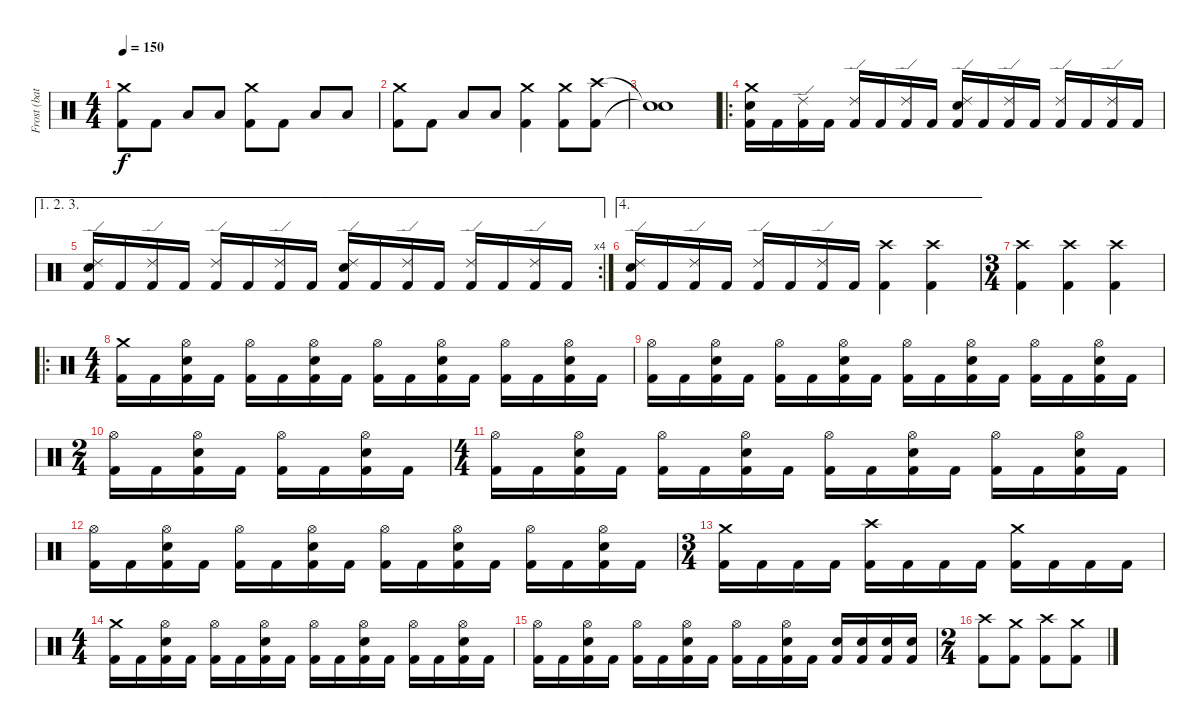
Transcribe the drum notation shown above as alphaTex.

\track ("Frost (battery)" "Frost (bat") {instrument percussion}
\staff {score}
\articulation defaults
\ts (4 4)
\tempo 150
\clef neutral
\ks c
("Crash medium (hit)" "Kick (hit) 2").8{dy f} "Kick (hit) 2".8 "Low Floor Tom (hit)".8 "Low Floor Tom (hit)".8 ("Crash medium (hit)" "Kick (hit) 2").8 "Kick (hit) 2".8 "Low Floor Tom (hit)".8 "Low Floor Tom (hit)".8 |
("Crash medium (hit)" "Kick (hit) 2").8 "Kick (hit) 2".8 "Low Floor Tom (hit)".8 "Low Floor Tom (hit)".8 ("Crash medium (hit)" "Kick (hit) 2").4 ("Crash medium (hit)" "Kick (hit) 2").8 ("Crash high (hit)" "Kick (hit) 2").8 |
("Snare (hit)"{t} "Snare (hit)"{t}).1 |
\ro
("Crash medium (hit)" "Electric Snare (hit)" "Kick (hit) 2").16 "Kick (hit) 2".16 ("Ride (edge) 2" "Kick (hit) 2").16 "Kick (hit) 2".16 ("Ride (edge) 2" "Kick (hit) 2").16 "Kick (hit) 2".16 ("Ride (edge) 2" "Kick (hit) 2").16 "Kick (hit) 2".16 ("Ride (edge) 2" "Electric Snare (hit)" "Kick (hit) 2").16 "Kick (hit) 2".16 ("Ride (edge) 2" "Kick (hit) 2").16 "Kick (hit) 2".16 ("Ride (edge) 2" "Kick (hit) 2").16 "Kick (hit) 2".16 ("Ride (edge) 2" "Kick (hit) 2").16 "Kick (hit) 2".16 |
\ae (1 2 3)
\rc 4
("Ride (edge) 2" "Electric Snare (hit)" "Kick (hit) 2").16 "Kick (hit) 2".16 ("Ride (edge) 2" "Kick (hit) 2").16 "Kick (hit) 2".16 ("Ride (edge) 2" "Kick (hit) 2").16 "Kick (hit) 2".16 ("Ride (edge) 2" "Kick (hit) 2").16 "Kick (hit) 2".16 ("Ride (edge) 2" "Electric Snare (hit)" "Kick (hit) 2").16 "Kick (hit) 2".16 ("Ride (edge) 2" "Kick (hit) 2").16 "Kick (hit) 2".16 ("Ride (edge) 2" "Kick (hit) 2").16 "Kick (hit) 2".16 ("Ride (edge) 2" "Kick (hit) 2").16 "Kick (hit) 2".16 |
\ae 4
("Ride (edge) 2" "Electric Snare (hit)" "Kick (hit) 2").16 "Kick (hit) 2".16 ("Ride (edge) 2" "Kick (hit) 2").16 "Kick (hit) 2".16 ("Ride (edge) 2" "Kick (hit) 2").16 "Kick (hit) 2".16 ("Ride (edge) 2" "Kick (hit) 2").16 "Kick (hit) 2".16 ("Crash high (hit)" "Kick (hit) 2").4 ("Crash high (hit)" "Kick (hit) 2").4 |
\ts (3 4)
("Crash high (hit)" "Kick (hit) 2").4 ("Crash high (hit)" "Kick (hit) 2").4 ("Crash high (hit)" "Kick (hit) 2").4 |
\ro
\ts (4 4)
("Crash medium (hit)" "Kick (hit) 2").16 "Kick (hit) 2".16 ("Hi-Hat (open)" "Electric Snare (hit)" "Kick (hit) 2").16 "Kick (hit) 2".16 ("Hi-Hat (open)" "Kick (hit) 2").16 "Kick (hit) 2".16 ("Hi-Hat (open)" "Electric Snare (hit)" "Kick (hit) 2").16 "Kick (hit) 2".16 ("Hi-Hat (open)" "Kick (hit) 2").16 "Kick (hit) 2".16 ("Hi-Hat (open)" "Electric Snare (hit)" "Kick (hit) 2").16 "Kick (hit) 2".16 ("Hi-Hat (open)" "Kick (hit) 2").16 "Kick (hit) 2".16 ("Hi-Hat (open)" "Electric Snare (hit)" "Kick (hit) 2").16 "Kick (hit) 2".16 |
("Hi-Hat (open)" "Kick (hit) 2").16 "Kick (hit) 2".16 ("Hi-Hat (open)" "Electric Snare (hit)" "Kick (hit) 2").16 "Kick (hit) 2".16 ("Hi-Hat (open)" "Kick (hit) 2").16 "Kick (hit) 2".16 ("Hi-Hat (open)" "Electric Snare (hit)" "Kick (hit) 2").16 "Kick (hit) 2".16 ("Hi-Hat (open)" "Kick (hit) 2").16 "Kick (hit) 2".16 ("Hi-Hat (open)" "Electric Snare (hit)" "Kick (hit) 2").16 "Kick (hit) 2".16 ("Hi-Hat (open)" "Kick (hit) 2").16 "Kick (hit) 2".16 ("Hi-Hat (open)" "Electric Snare (hit)" "Kick (hit) 2").16 "Kick (hit) 2".16 |
\ts (2 4)
("Hi-Hat (open)" "Kick (hit) 2").16 "Kick (hit) 2".16 ("Hi-Hat (open)" "Electric Snare (hit)" "Kick (hit) 2").16 "Kick (hit) 2".16 ("Hi-Hat (open)" "Kick (hit) 2").16 "Kick (hit) 2".16 ("Hi-Hat (open)" "Electric Snare (hit)" "Kick (hit) 2").16 "Kick (hit) 2".16 |
\ts (4 4)
("Hi-Hat (open)" "Kick (hit) 2").16 "Kick (hit) 2".16 ("Hi-Hat (open)" "Electric Snare (hit)" "Kick (hit) 2").16 "Kick (hit) 2".16 ("Hi-Hat (open)" "Kick (hit) 2").16 "Kick (hit) 2".16 ("Hi-Hat (open)" "Electric Snare (hit)" "Kick (hit) 2").16 "Kick (hit) 2".16 ("Hi-Hat (open)" "Kick (hit) 2").16 "Kick (hit) 2".16 ("Hi-Hat (open)" "Electric Snare (hit)" "Kick (hit) 2").16 "Kick (hit) 2".16 ("Hi-Hat (open)" "Kick (hit) 2").16 "Kick (hit) 2".16 ("Hi-Hat (open)" "Electric Snare (hit)" "Kick (hit) 2").16 "Kick (hit) 2".16 |
("Hi-Hat (open)" "Kick (hit) 2").16 "Kick (hit) 2".16 ("Hi-Hat (open)" "Electric Snare (hit)" "Kick (hit) 2").16 "Kick (hit) 2".16 ("Hi-Hat (open)" "Kick (hit) 2").16 "Kick (hit) 2".16 ("Hi-Hat (open)" "Electric Snare (hit)" "Kick (hit) 2").16 "Kick (hit) 2".16 ("Hi-Hat (open)" "Kick (hit) 2").16 "Kick (hit) 2".16 ("Hi-Hat (open)" "Electric Snare (hit)" "Kick (hit) 2").16 "Kick (hit) 2".16 ("Hi-Hat (open)" "Kick (hit) 2").16 "Kick (hit) 2".16 ("Hi-Hat (open)" "Electric Snare (hit)" "Kick (hit) 2").16 "Kick (hit) 2".16 |
\ts (3 4)
("Crash medium (hit)" "Kick (hit) 2").16 "Kick (hit) 2".16 "Kick (hit) 2".16 "Kick (hit) 2".16 ("Crash high (hit)" "Kick (hit) 2").16 "Kick (hit) 2".16 "Kick (hit) 2".16 "Kick (hit) 2".16 ("Crash medium (hit)" "Kick (hit) 2").16 "Kick (hit) 2".16 "Kick (hit) 2".16 "Kick (hit) 2".16 |
\ts (4 4)
("Crash medium (hit)" "Kick (hit) 2").16 "Kick (hit) 2".16 ("Hi-Hat (open)" "Electric Snare (hit)" "Kick (hit) 2").16 "Kick (hit) 2".16 ("Hi-Hat (open)" "Kick (hit) 2").16 "Kick (hit) 2".16 ("Hi-Hat (open)" "Electric Snare (hit)" "Kick (hit) 2").16 "Kick (hit) 2".16 ("Hi-Hat (open)" "Kick (hit) 2").16 "Kick (hit) 2".16 ("Hi-Hat (open)" "Electric Snare (hit)" "Kick (hit) 2").16 "Kick (hit) 2".16 ("Hi-Hat (open)" "Kick (hit) 2").16 "Kick (hit) 2".16 ("Hi-Hat (open)" "Electric Snare (hit)" "Kick (hit) 2").16 "Kick (hit) 2".16 |
("Hi-Hat (open)" "Kick (hit) 2").16 "Kick (hit) 2".16 ("Hi-Hat (open)" "Electric Snare (hit)" "Kick (hit) 2").16 "Kick (hit) 2".16 ("Hi-Hat (open)" "Kick (hit) 2").16 "Kick (hit) 2".16 ("Hi-Hat (open)" "Electric Snare (hit)" "Kick (hit) 2").16 "Kick (hit) 2".16 ("Hi-Hat (open)" "Kick (hit) 2").16 "Kick (hit) 2".16 ("Hi-Hat (open)" "Electric Snare (hit)" "Kick (hit) 2").16 "Kick (hit) 2".16 ("Electric Snare (hit)" "Kick (hit) 2").16 ("Electric Snare (hit)" "Kick (hit) 2").16 ("Electric Snare (hit)" "Kick (hit) 2").16 ("Electric Snare (hit)" "Kick (hit) 2").16 |
\ts (2 4)
("Crash high (hit)" "Kick (hit) 2").8 ("Crash medium (hit)" "Kick (hit) 2").8 ("Crash high (hit)" "Kick (hit) 2").8 ("Crash medium (hit)" "Kick (hit) 2").8
